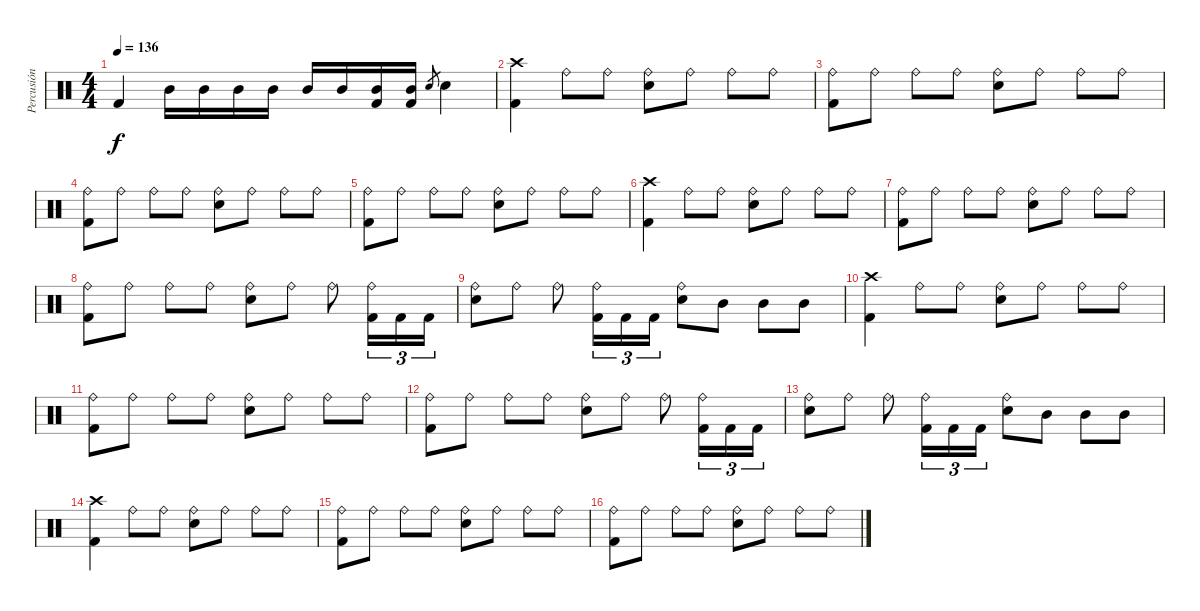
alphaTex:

\track ("Percusión" "Percusión") {instrument percussion}
\staff {score}
\articulation defaults
\ts (4 4)
\tempo 136
\clef neutral
\ks c "Kick (hit) 2".4{dy f} "Mid Tom (hit)".16 "Mid Tom (hit)".16 "Mid Tom (hit)".16 "Mid Tom (hit)".16 "Mid Tom (hit)".16 "Mid Tom (hit)".16
("Mid Tom (hit)" "Kick (hit) 2").16 ("Mid Tom (hit)" "Kick (hit) 2").16 "Electric Snare (hit)".8{gr} "Electric Snare (hit)".4 |
("Crash high (hit)" "Kick (hit) 2").4 "Ride (bell)".8 "Ride (bell)".8 ("Ride (bell)" "Electric Snare (hit)").8 "Ride (bell)".8 "Ride (bell)".8 "Ride (bell)".8 |
("Ride (bell)" "Kick (hit) 2").8 "Ride (bell)".8 "Ride (bell)".8 "Ride (bell)".8 ("Ride (bell)" "Electric Snare (hit)").8 "Ride (bell)".8 "Ride (bell)".8 "Ride (bell)".8 |
("Ride (bell)" "Kick (hit) 2").8 "Ride (bell)".8 "Ride (bell)".8 "Ride (bell)".8 ("Ride (bell)" "Electric Snare (hit)").8 "Ride (bell)".8 "Ride (bell)".8 "Ride (bell)".8 |
("Ride (bell)" "Kick (hit) 2").8 "Ride (bell)".8 "Ride (bell)".8 "Ride (bell)".8 ("Ride (bell)" "Electric Snare (hit)").8 "Ride (bell)".8 "Ride (bell)".8 "Ride (bell)".8 |
("Crash high (hit)" "Kick (hit) 2").4 "Ride (bell)".8 "Ride (bell)".8 ("Ride (bell)" "Electric Snare (hit)").8 "Ride (bell)".8 "Ride (bell)".8 "Ride (bell)".8 |
("Ride (bell)" "Kick (hit) 2").8 "Ride (bell)".8 "Ride (bell)".8 "Ride (bell)".8 ("Ride (bell)" "Electric Snare (hit)").8 "Ride (bell)".8 "Ride (bell)".8 "Ride (bell)".8 |
("Ride (bell)" "Kick (hit) 2").8 "Ride (bell)".8 "Ride (bell)".8 "Ride (bell)".8 ("Ride (bell)" "Electric Snare (hit)").8 "Ride (bell)".8 "Ride (bell)".8 ("Ride (bell)" "Kick (hit) 2").16{tu (3 2)} "Kick (hit) 2".16{tu (3 2)} "Kick (hit) 2".16{tu (3 2)} |
("Ride (bell)" "Electric Snare (hit)").8 "Ride (bell)".8 "Ride (bell)".8 ("Ride (bell)" "Kick (hit) 2").16{tu (3 2)} "Kick (hit) 2".16{tu (3 2)} "Kick (hit) 2".16{tu (3 2)} ("Ride (bell)" "Electric Snare (hit)").8 "Mid Tom (hit)".8 "Mid Tom (hit)".8 "Mid Tom (hit)".8 |
("Crash high (hit)" "Kick (hit) 2").4 "Ride (bell)".8 "Ride (bell)".8 ("Ride (bell)" "Electric Snare (hit)").8 "Ride (bell)".8 "Ride (bell)".8 "Ride (bell)".8 |
("Ride (bell)" "Kick (hit) 2").8 "Ride (bell)".8 "Ride (bell)".8 "Ride (bell)".8 ("Ride (bell)" "Electric Snare (hit)").8 "Ride (bell)".8 "Ride (bell)".8 "Ride (bell)".8 |
("Ride (bell)" "Kick (hit) 2").8 "Ride (bell)".8 "Ride (bell)".8 "Ride (bell)".8 ("Ride (bell)" "Electric Snare (hit)").8 "Ride (bell)".8 "Ride (bell)".8 ("Ride (bell)" "Kick (hit) 2").16{tu (3 2)} "Kick (hit) 2".16{tu (3 2)} "Kick (hit) 2".16{tu (3 2)} |
("Ride (bell)" "Electric Snare (hit)").8 "Ride (bell)".8 "Ride (bell)".8 ("Ride (bell)" "Kick (hit) 2").16{tu (3 2)} "Kick (hit) 2".16{tu (3 2)} "Kick (hit) 2".16{tu (3 2)} ("Ride (bell)" "Electric Snare (hit)").8 "Mid Tom (hit)".8 "Mid Tom (hit)".8 "Mid Tom (hit)".8 |
("Crash high (hit)" "Kick (hit) 2").4 "Ride (bell)".8 "Ride (bell)".8 ("Ride (bell)" "Electric Snare (hit)").8 "Ride (bell)".8 "Ride (bell)".8 "Ride (bell)".8 |
("Ride (bell)" "Kick (hit) 2").8 "Ride (bell)".8 "Ride (bell)".8 "Ride (bell)".8 ("Ride (bell)" "Electric Snare (hit)").8 "Ride (bell)".8 "Ride (bell)".8 "Ride (bell)".8 |
("Ride (bell)" "Kick (hit) 2").8 "Ride (bell)".8 "Ride (bell)".8 "Ride (bell)".8 ("Ride (bell)" "Electric Snare (hit)").8 "Ride (bell)".8 "Ride (bell)".8 "Ride (bell)".8
